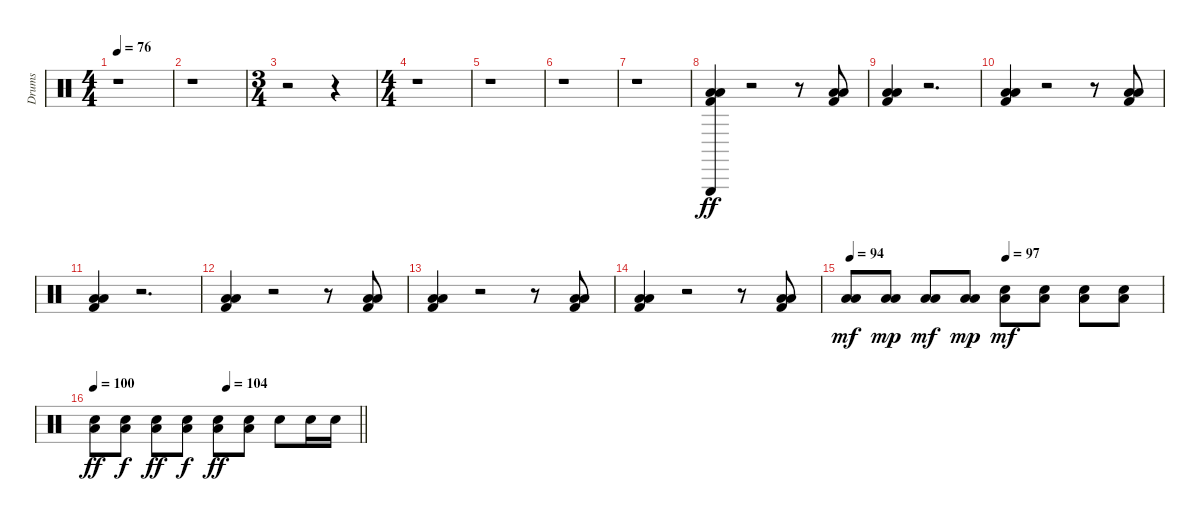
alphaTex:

\track ("Drums" "Drums") {instrument percussion}
\staff {score}
\articulation defaults
\ts (4 4)
\tempo 76
\clef neutral
\ks c
r.1{dy pp} |
r.1 |
\ts (3 4)
r.2 r.4 |
\ts (4 4)
r.1 |
r.1 |
r.1 |
r.1 |
("Low Tom (hit)" "Low Floor Tom (hit)" "Kick (hit) 2" "Triangle (hit)").4{dy ff} r.2 r.8 ("Low Tom (hit)" "Low Floor Tom (hit)" "Kick (hit) 2").8 |
("Low Tom (hit)" "Low Floor Tom (hit)" "Kick (hit) 2").4 r.2{d} |
("Low Tom (hit)" "Low Floor Tom (hit)" "Kick (hit) 2").4 r.2 r.8 ("Low Tom (hit)" "Low Floor Tom (hit)" "Kick (hit) 2").8 |
("Low Tom (hit)" "Low Floor Tom (hit)" "Kick (hit) 2").4 r.2{d} |
("Low Tom (hit)" "Low Floor Tom (hit)" "Kick (hit) 2").4 r.2 r.8 ("Low Tom (hit)" "Low Floor Tom (hit)" "Kick (hit) 2").8 |
("Low Tom (hit)" "Low Floor Tom (hit)" "Kick (hit) 2").4 r.2 r.8 ("Low Tom (hit)" "Low Floor Tom (hit)" "Kick (hit) 2").8 |
("Low Tom (hit)" "Low Floor Tom (hit)" "Kick (hit) 2").4 r.2 r.8 ("Low Tom (hit)" "Low Floor Tom (hit)" "Kick (hit) 2").8 |
\tempo 94
\tempo (97 0.5)
("Low Tom (hit)" "Low Floor Tom (hit)").8{dy mf} ("Low Tom (hit)" "Low Floor Tom (hit)").8{dy mp} ("Low Tom (hit)" "Low Floor Tom (hit)").8{dy mf} ("Low Tom (hit)" "Low Floor Tom (hit)").8{dy mp} ("Snare (hit) 2" "Low Floor Tom (hit)").8{dy mf} ("Snare (hit) 2" "Low Floor Tom (hit)").8 ("Snare (hit) 2" "Low Floor Tom (hit)").8 ("Snare (hit) 2" "Low Floor Tom (hit)").8 |
\tempo 100
\tempo (104 0.5)
\barLineRight lightlight
("Snare (hit) 2" "Low Floor Tom (hit)").8{dy ff} ("Snare (hit) 2" "Low Floor Tom (hit)").8{dy f} ("Snare (hit) 2" "Low Floor Tom (hit)").8{dy ff} ("Snare (hit) 2" "Low Floor Tom (hit)").8{dy f} ("Snare (hit) 2" "Low Floor Tom (hit)").8{dy ff} ("Snare (hit) 2" "Low Floor Tom (hit)").8 "Snare (hit) 2".8 "Snare (hit) 2".16 "Snare (hit) 2".16
